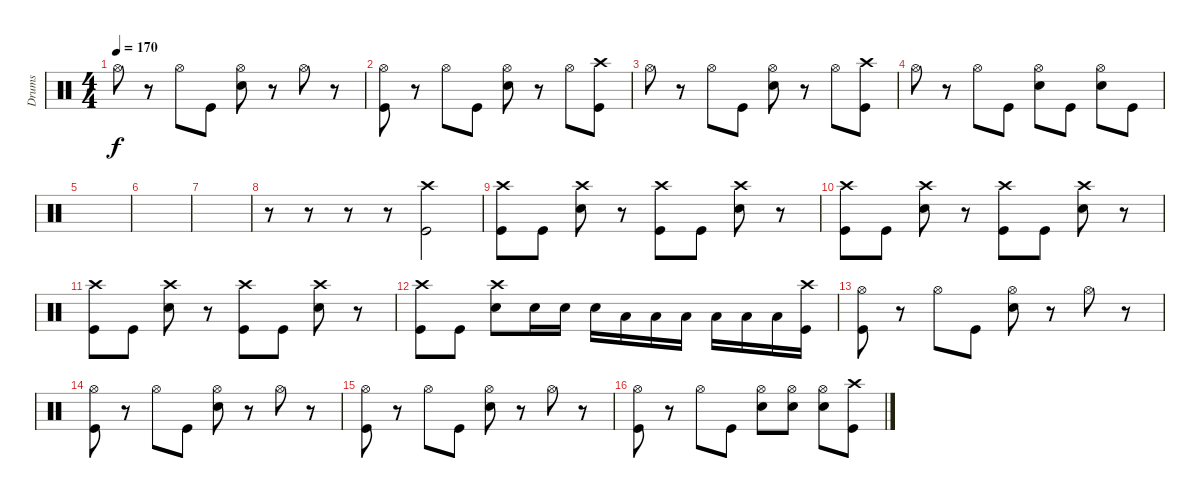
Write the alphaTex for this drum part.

\track ("Drums" "Drums") {instrument percussion}
\staff {score}
\articulation defaults
\ts (4 4)
\tempo 170
\clef neutral
\ks c "Hi-Hat (open)".8{dy f}
r.8 "Hi-Hat (open)".8 "Kick (hit)".8 ("Hi-Hat (open)" "Snare (hit) 2").8 r.8 "Hi-Hat (open)".8 r.8 |
("Hi-Hat (open)" "Kick (hit)").8 r.8 "Hi-Hat (open)".8 "Kick (hit)".8 ("Hi-Hat (open)" "Snare (hit) 2").8 r.8 "Hi-Hat (open)".8 ("Crash high (hit)" "Kick (hit)").8 |
"Hi-Hat (open)".8 r.8 "Hi-Hat (open)".8 "Kick (hit)".8 ("Hi-Hat (open)" "Snare (hit) 2").8 r.8 "Hi-Hat (open)".8 ("Crash high (hit)" "Kick (hit)").8 |
"Hi-Hat (open)".8 r.8 "Hi-Hat (open)".8 "Kick (hit)".8 ("Hi-Hat (open)" "Snare (hit) 2").8 "Kick (hit)".8 ("Hi-Hat (open)" "Snare (hit) 2").8 "Kick (hit)".8 |
|
|
|
r.8 r.8 r.8 r.8 ("Crash high (hit)" "Kick (hit)").2 |
("Crash high (hit)" "Kick (hit)").8 "Kick (hit)".8 ("Crash high (hit)" "Snare (hit) 2").8 r.8 ("Crash high (hit)" "Kick (hit)").8 "Kick (hit)".8 ("Crash high (hit)" "Snare (hit) 2").8 r.8 |
("Crash high (hit)" "Kick (hit)").8 "Kick (hit)".8 ("Crash high (hit)" "Snare (hit) 2").8 r.8 ("Crash high (hit)" "Kick (hit)").8 "Kick (hit)".8 ("Crash high (hit)" "Snare (hit) 2").8 r.8 |
("Crash high (hit)" "Kick (hit)").8 "Kick (hit)".8 ("Crash high (hit)" "Snare (hit) 2").8 r.8 ("Crash high (hit)" "Kick (hit)").8 "Kick (hit)".8 ("Crash high (hit)" "Snare (hit) 2").8 r.8 |
("Crash high (hit)" "Kick (hit)").8 "Kick (hit)".8 ("Crash high (hit)" "Snare (hit) 2").8 "Snare (hit) 2".16 "Snare (hit) 2".16 "Snare (hit) 2".16 "Low Tom (hit)".16 "Low Tom (hit)".16 "Low Tom (hit)".16 "Low Floor Tom (hit)".16 "Low Floor Tom (hit)".16 "Low Floor Tom (hit)".16 ("Crash high (hit)" "Kick (hit)").16 |
("Hi-Hat (open)" "Kick (hit)").8 r.8 "Hi-Hat (open)".8 "Kick (hit)".8 ("Hi-Hat (open)" "Snare (hit) 2").8 r.8 "Hi-Hat (open)".8 r.8 |
("Hi-Hat (open)" "Kick (hit)").8 r.8 "Hi-Hat (open)".8 "Kick (hit)".8 ("Hi-Hat (open)" "Snare (hit) 2").8 r.8 "Hi-Hat (open)".8 r.8 |
("Hi-Hat (open)" "Kick (hit)").8 r.8 "Hi-Hat (open)".8 "Kick (hit)".8 ("Hi-Hat (open)" "Snare (hit) 2").8 r.8 "Hi-Hat (open)".8 r.8 |
("Hi-Hat (open)" "Kick (hit)").8 r.8 "Hi-Hat (open)".8 "Kick (hit)".8 ("Hi-Hat (open)" "Snare (hit) 2").8 ("Hi-Hat (open)" "Snare (hit) 2").8 ("Hi-Hat (open)" "Snare (hit) 2").8 ("Crash high (hit)" "Kick (hit)").8
